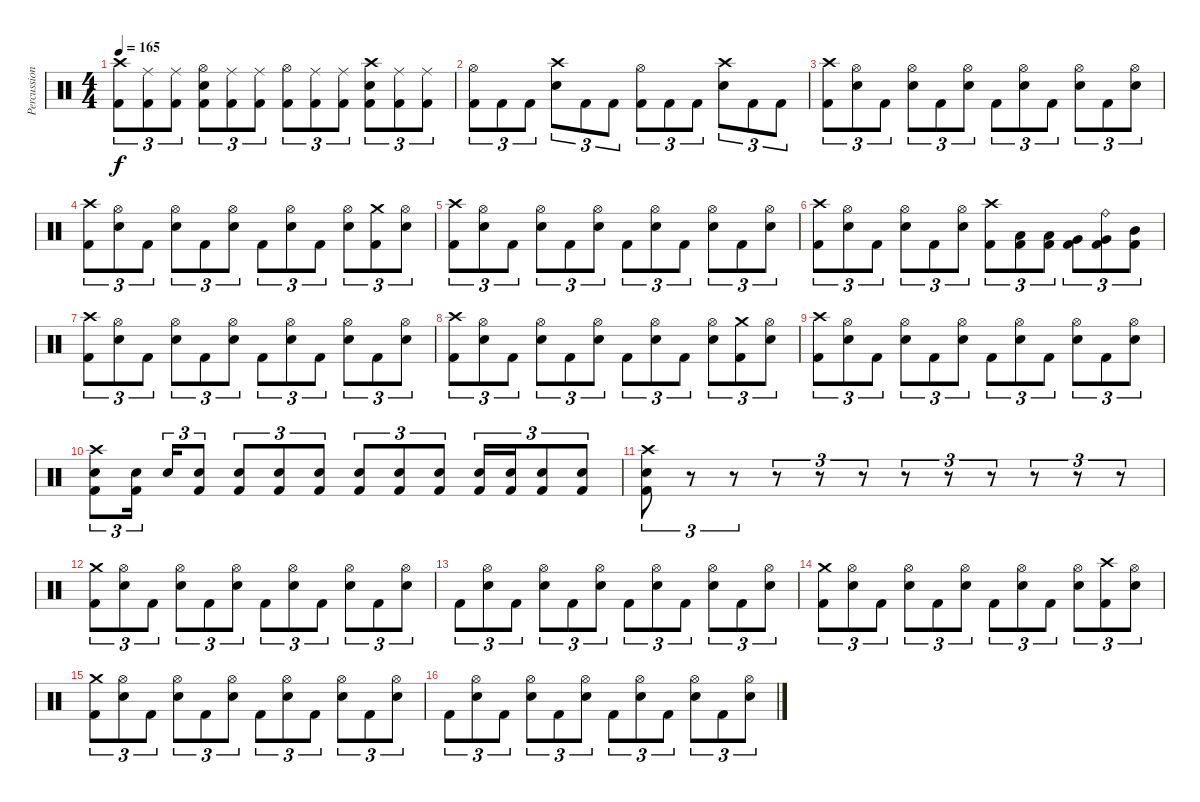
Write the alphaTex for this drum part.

\track ("Percussion" "Percussion") {instrument percussion}
\staff {score}
\articulation defaults
\ts (4 4)
\tempo 165
\clef neutral
\ks c
("Crash high (hit)" "Kick (hit) 2").8{tu (3 2) dy f} ("Ride (middle)" "Kick (hit) 2").8{tu (3 2)} ("Ride (middle)" "Kick (hit) 2").8{tu (3 2)} ("Hi-Hat (open)" "Electric Snare (hit)" "Kick (hit) 2").8{tu (3 2)} ("Ride (middle)" "Kick (hit) 2").8{tu (3 2)} ("Ride (middle)" "Kick (hit) 2").8{tu (3 2)} ("Hi-Hat (open)" "Kick (hit) 2").8{tu (3 2)} ("Ride (middle)" "Kick (hit) 2").8{tu (3 2)} ("Ride (middle)" "Kick (hit) 2").8{tu (3 2)} ("Crash high (hit)" "Electric Snare (hit)" "Kick (hit) 2").8{tu (3 2)} ("Ride (middle)" "Kick (hit) 2").8{tu (3 2)} ("Ride (middle)" "Kick (hit) 2").8{tu (3 2)} |
("Hi-Hat (open)" "Kick (hit) 2").8{tu (3 2)} "Kick (hit) 2".8{tu (3 2)} "Kick (hit) 2".8{tu (3 2)} ("Crash high (hit)" "Electric Snare (hit)").8{tu (3 2)} "Kick (hit) 2".8{tu (3 2)} "Kick (hit) 2".8{tu (3 2)} ("Hi-Hat (open)" "Kick (hit) 2").8{tu (3 2)} "Kick (hit) 2".8{tu (3 2)} "Kick (hit) 2".8{tu (3 2)} ("Crash high (hit)" "Electric Snare (hit)").8{tu (3 2)} "Kick (hit) 2".8{tu (3 2)} "Kick (hit) 2".8{tu (3 2)} |
("Crash high (hit)" "Kick (hit) 2").8{tu (3 2)} ("Hi-Hat (open)" "Electric Snare (hit)").8{tu (3 2)} "Kick (hit) 2".8{tu (3 2)} ("Hi-Hat (open)" "Electric Snare (hit)").8{tu (3 2)} "Kick (hit) 2".8{tu (3 2)} ("Hi-Hat (open)" "Electric Snare (hit)").8{tu (3 2)} "Kick (hit) 2".8{tu (3 2)} ("Hi-Hat (open)" "Electric Snare (hit)").8{tu (3 2)} "Kick (hit) 2".8{tu (3 2)} ("Hi-Hat (open)" "Electric Snare (hit)").8{tu (3 2)} "Kick (hit) 2".8{tu (3 2)} ("Hi-Hat (open)" "Electric Snare (hit)").8{tu (3 2)} |
("Crash high (hit)" "Kick (hit) 2").8{tu (3 2)} ("Hi-Hat (open)" "Electric Snare (hit)").8{tu (3 2)} "Kick (hit) 2".8{tu (3 2)} ("Hi-Hat (open)" "Electric Snare (hit)").8{tu (3 2)} "Kick (hit) 2".8{tu (3 2)} ("Hi-Hat (open)" "Electric Snare (hit)").8{tu (3 2)} "Kick (hit) 2".8{tu (3 2)} ("Hi-Hat (open)" "Electric Snare (hit)").8{tu (3 2)} "Kick (hit) 2".8{tu (3 2)} ("Hi-Hat (open)" "Electric Snare (hit)").8{tu (3 2)} ("Crash medium (hit)" "Kick (hit) 2").8{tu (3 2)} ("Hi-Hat (open)" "Electric Snare (hit)").8{tu (3 2)} |
("Crash high (hit)" "Kick (hit) 2").8{tu (3 2)} ("Hi-Hat (open)" "Electric Snare (hit)").8{tu (3 2)} "Kick (hit) 2".8{tu (3 2)} ("Hi-Hat (open)" "Electric Snare (hit)").8{tu (3 2)} "Kick (hit) 2".8{tu (3 2)} ("Hi-Hat (open)" "Electric Snare (hit)").8{tu (3 2)} "Kick (hit) 2".8{tu (3 2)} ("Hi-Hat (open)" "Electric Snare (hit)").8{tu (3 2)} "Kick (hit) 2".8{tu (3 2)} ("Hi-Hat (open)" "Electric Snare (hit)").8{tu (3 2)} "Kick (hit) 2".8{tu (3 2)} ("Hi-Hat (open)" "Electric Snare (hit)").8{tu (3 2)} |
("Crash high (hit)" "Kick (hit) 2").8{tu (3 2)} ("Hi-Hat (open)" "Electric Snare (hit)").8{tu (3 2)} "Kick (hit) 2".8{tu (3 2)} ("Hi-Hat (open)" "Electric Snare (hit)").8{tu (3 2)} "Kick (hit) 2".8{tu (3 2)} ("Hi-Hat (open)" "Electric Snare (hit)").8{tu (3 2)} ("Crash high (hit)" "Kick (hit) 2").8{tu (3 2)} ("Low Tom (hit)" "Kick (hit) 2").8{tu (3 2)} ("Low Tom (hit)" "Kick (hit) 2").8{tu (3 2)} ("Very Low Tom (hit)" "Kick (hit) 2").8{tu (3 2)} ("Ride (bell)" "Very Low Tom (hit)" "Kick (hit) 2").8{tu (3 2)} ("Mid Tom (hit)" "Kick (hit) 2").8{tu (3 2)} |
("Crash high (hit)" "Kick (hit) 2").8{tu (3 2)} ("Hi-Hat (open)" "Electric Snare (hit)").8{tu (3 2)} "Kick (hit) 2".8{tu (3 2)} ("Hi-Hat (open)" "Electric Snare (hit)").8{tu (3 2)} "Kick (hit) 2".8{tu (3 2)} ("Hi-Hat (open)" "Electric Snare (hit)").8{tu (3 2)} "Kick (hit) 2".8{tu (3 2)} ("Hi-Hat (open)" "Electric Snare (hit)").8{tu (3 2)} "Kick (hit) 2".8{tu (3 2)} ("Hi-Hat (open)" "Electric Snare (hit)").8{tu (3 2)} "Kick (hit) 2".8{tu (3 2)} ("Hi-Hat (open)" "Electric Snare (hit)").8{tu (3 2)} |
("Crash high (hit)" "Kick (hit) 2").8{tu (3 2)} ("Hi-Hat (open)" "Electric Snare (hit)").8{tu (3 2)} "Kick (hit) 2".8{tu (3 2)} ("Hi-Hat (open)" "Electric Snare (hit)").8{tu (3 2)} "Kick (hit) 2".8{tu (3 2)} ("Hi-Hat (open)" "Electric Snare (hit)").8{tu (3 2)} "Kick (hit) 2".8{tu (3 2)} ("Hi-Hat (open)" "Electric Snare (hit)").8{tu (3 2)} "Kick (hit) 2".8{tu (3 2)} ("Hi-Hat (open)" "Electric Snare (hit)").8{tu (3 2)} ("Crash medium (hit)" "Kick (hit) 2").8{tu (3 2)} ("Hi-Hat (open)" "Electric Snare (hit)").8{tu (3 2)} |
("Crash high (hit)" "Kick (hit) 2").8{tu (3 2)} ("Hi-Hat (open)" "Electric Snare (hit)").8{tu (3 2)} "Kick (hit) 2".8{tu (3 2)} ("Hi-Hat (open)" "Electric Snare (hit)").8{tu (3 2)} "Kick (hit) 2".8{tu (3 2)} ("Hi-Hat (open)" "Electric Snare (hit)").8{tu (3 2)} "Kick (hit) 2".8{tu (3 2)} ("Hi-Hat (open)" "Electric Snare (hit)").8{tu (3 2)} "Kick (hit) 2".8{tu (3 2)} ("Hi-Hat (open)" "Electric Snare (hit)").8{tu (3 2)} "Kick (hit) 2".8{tu (3 2)} ("Hi-Hat (open)" "Electric Snare (hit)").8{tu (3 2)} |
("Crash high (hit)" "Electric Snare (hit)" "Kick (hit) 2").8{tu (3 2)} ("Electric Snare (hit)" "Kick (hit) 2").16{tu (3 2)} "Electric Snare (hit)".16{tu (3 2)} ("Electric Snare (hit)" "Kick (hit) 2").8{tu (3 2)} ("Electric Snare (hit)" "Kick (hit) 2").8{tu (3 2)} ("Electric Snare (hit)" "Kick (hit) 2").8{tu (3 2)} ("Electric Snare (hit)" "Kick (hit) 2").8{tu (3 2)} ("Electric Snare (hit)" "Kick (hit) 2").8{tu (3 2)} ("Electric Snare (hit)" "Kick (hit) 2").8{tu (3 2)} ("Electric Snare (hit)" "Kick (hit) 2").8{tu (3 2)} ("Electric Snare (hit)" "Kick (hit) 2").16{tu (3 2)} ("Electric Snare (hit)" "Kick (hit) 2").16{tu (3 2)} ("Electric Snare (hit)" "Kick (hit) 2").8{tu (3 2)} ("Electric Snare (hit)" "Kick (hit) 2").8{tu (3 2)} |
("Crash high (hit)" "Electric Snare (hit)" "Kick (hit) 2").8{tu (3 2)} r.8{tu (3 2)} r.8{tu (3 2)} r.8{tu (3 2)} r.8{tu (3 2)} r.8{tu (3 2)} r.8{tu (3 2)} r.8{tu (3 2)} r.8{tu (3 2)} r.8{tu (3 2)} r.8{tu (3 2)} r.8{tu (3 2)} |
("Crash medium (hit)" "Kick (hit) 2").8{tu (3 2)} ("Hi-Hat (open)" "Electric Snare (hit)").8{tu (3 2)} "Kick (hit) 2".8{tu (3 2)} ("Hi-Hat (open)" "Electric Snare (hit)").8{tu (3 2)} "Kick (hit) 2".8{tu (3 2)} ("Hi-Hat (open)" "Electric Snare (hit)").8{tu (3 2)} "Kick (hit) 2".8{tu (3 2)} ("Hi-Hat (open)" "Electric Snare (hit)").8{tu (3 2)} "Kick (hit) 2".8{tu (3 2)} ("Hi-Hat (open)" "Electric Snare (hit)").8{tu (3 2)} "Kick (hit) 2".8{tu (3 2)} ("Hi-Hat (open)" "Electric Snare (hit)").8{tu (3 2)} |
"Kick (hit) 2".8{tu (3 2)} ("Hi-Hat (open)" "Electric Snare (hit)").8{tu (3 2)} "Kick (hit) 2".8{tu (3 2)} ("Hi-Hat (open)" "Electric Snare (hit)").8{tu (3 2)} "Kick (hit) 2".8{tu (3 2)} ("Hi-Hat (open)" "Electric Snare (hit)").8{tu (3 2)} "Kick (hit) 2".8{tu (3 2)} ("Hi-Hat (open)" "Electric Snare (hit)").8{tu (3 2)} "Kick (hit) 2".8{tu (3 2)} ("Hi-Hat (open)" "Electric Snare (hit)").8{tu (3 2)} "Kick (hit) 2".8{tu (3 2)} ("Hi-Hat (open)" "Electric Snare (hit)").8{tu (3 2)} |
("Crash medium (hit)" "Kick (hit) 2").8{tu (3 2)} ("Hi-Hat (open)" "Electric Snare (hit)").8{tu (3 2)} "Kick (hit) 2".8{tu (3 2)} ("Hi-Hat (open)" "Electric Snare (hit)").8{tu (3 2)} "Kick (hit) 2".8{tu (3 2)} ("Hi-Hat (open)" "Electric Snare (hit)").8{tu (3 2)} "Kick (hit) 2".8{tu (3 2)} ("Hi-Hat (open)" "Electric Snare (hit)").8{tu (3 2)} "Kick (hit) 2".8{tu (3 2)} ("Hi-Hat (open)" "Electric Snare (hit)").8{tu (3 2)} ("Crash high (hit)" "Kick (hit) 2").8{tu (3 2)} ("Hi-Hat (open)" "Electric Snare (hit)").8{tu (3 2)} |
("Crash medium (hit)" "Kick (hit) 2").8{tu (3 2)} ("Hi-Hat (open)" "Electric Snare (hit)").8{tu (3 2)} "Kick (hit) 2".8{tu (3 2)} ("Hi-Hat (open)" "Electric Snare (hit)").8{tu (3 2)} "Kick (hit) 2".8{tu (3 2)} ("Hi-Hat (open)" "Electric Snare (hit)").8{tu (3 2)} "Kick (hit) 2".8{tu (3 2)} ("Hi-Hat (open)" "Electric Snare (hit)").8{tu (3 2)} "Kick (hit) 2".8{tu (3 2)} ("Hi-Hat (open)" "Electric Snare (hit)").8{tu (3 2)} "Kick (hit) 2".8{tu (3 2)} ("Hi-Hat (open)" "Electric Snare (hit)").8{tu (3 2)} |
"Kick (hit) 2".8{tu (3 2)} ("Hi-Hat (open)" "Electric Snare (hit)").8{tu (3 2)} "Kick (hit) 2".8{tu (3 2)} ("Hi-Hat (open)" "Electric Snare (hit)").8{tu (3 2)} "Kick (hit) 2".8{tu (3 2)} ("Hi-Hat (open)" "Electric Snare (hit)").8{tu (3 2)} "Kick (hit) 2".8{tu (3 2)} ("Hi-Hat (open)" "Electric Snare (hit)").8{tu (3 2)} "Kick (hit) 2".8{tu (3 2)} ("Hi-Hat (open)" "Electric Snare (hit)").8{tu (3 2)} "Kick (hit) 2".8{tu (3 2)} ("Hi-Hat (open)" "Electric Snare (hit)").8{tu (3 2)}
